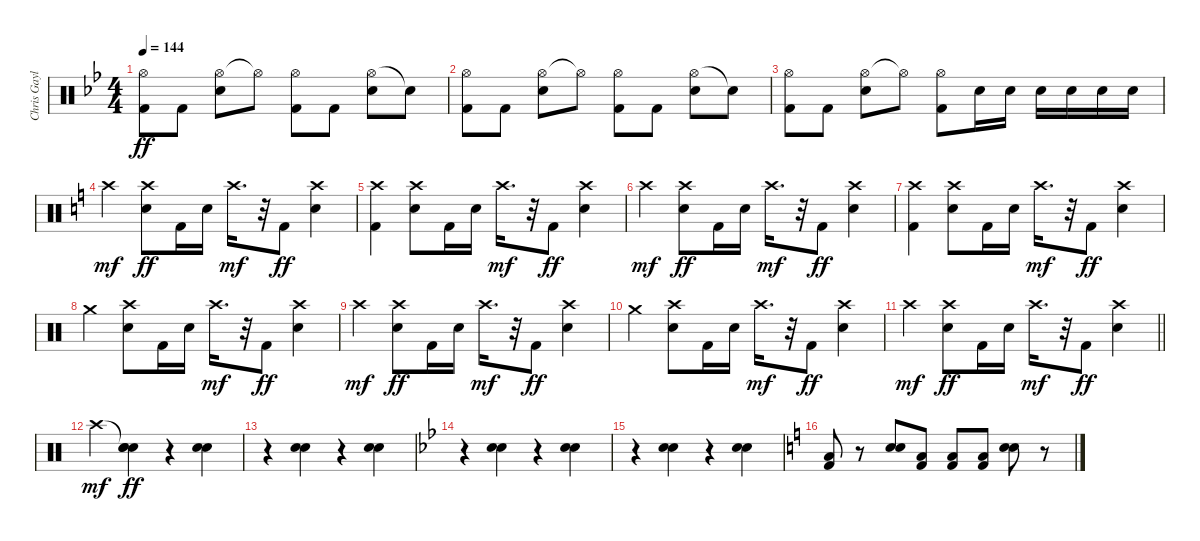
\track ("Chris Gaylor" "Chris Gayl") {instrument percussion}
\staff {score}
\articulation defaults
\ts (4 4)
\tempo 144
\clef neutral
\ks bb
("Hi-Hat (open)" "Kick (hit) 2").8{dy ff} "Kick (hit) 2".8 ("Hi-Hat (open)" "Snare (hit) 2").8 "Hi-Hat (open)"{t}.8 ("Hi-Hat (open)" "Kick (hit) 2").8 "Kick (hit) 2".8 ("Hi-Hat (open)" "Snare (hit) 2").8 "Snare (hit)"{t}.8 |
("Hi-Hat (open)" "Kick (hit) 2").8 "Kick (hit) 2".8 ("Hi-Hat (open)" "Snare (hit) 2").8 "Hi-Hat (open)"{t}.8 ("Hi-Hat (open)" "Kick (hit) 2").8 "Kick (hit) 2".8 ("Hi-Hat (open)" "Snare (hit) 2").8 "Snare (hit)"{t}.8 |
("Hi-Hat (open)" "Kick (hit) 2").8 "Kick (hit) 2".8 ("Hi-Hat (open)" "Snare (hit) 2").8 "Hi-Hat (open)"{t}.8 ("Hi-Hat (open)" "Kick (hit) 2").8 "Snare (hit) 2".16 "Snare (hit) 2".16 "Snare (hit) 2".16 "Snare (hit) 2".16 "Snare (hit) 2".16 "Snare (hit) 2".16 |
\ks c "Crash high (hit)".4{dy mf}
("Crash high (hit)" "Snare (hit) 2").8{dy ff} "Kick (hit) 2".16 "Snare (hit) 2".16 "Crash high (hit)".16{d dy mf} r.32 "Kick (hit) 2".8{dy ff} ("Crash high (hit)" "Snare (hit) 2").4 |
("Crash high (hit)" "Kick (hit) 2").4 ("Crash high (hit)" "Snare (hit) 2").8 "Kick (hit) 2".16 "Snare (hit) 2".16 "Crash high (hit)".16{d dy mf} r.32 "Kick (hit) 2".8{dy ff} ("Crash high (hit)" "Snare (hit) 2").4 |
"Crash high (hit)".4{dy mf} ("Crash high (hit)" "Snare (hit) 2").8{dy ff} "Kick (hit) 2".16 "Snare (hit) 2".16 "Crash high (hit)".16{d dy mf} r.32 "Kick (hit) 2".8{dy ff} ("Crash high (hit)" "Snare (hit) 2").4 |
("Crash high (hit)" "Kick (hit) 2").4 ("Crash high (hit)" "Snare (hit) 2").8 "Kick (hit) 2".16 "Snare (hit) 2".16 "Crash high (hit)".16{d dy mf} r.32 "Kick (hit) 2".8{dy ff} ("Crash high (hit)" "Snare (hit) 2").4 |
"Crash medium (hit)".4 ("Crash high (hit)" "Snare (hit) 2").8 "Kick (hit) 2".16 "Snare (hit) 2".16 "Crash high (hit)".16{d dy mf} r.32 "Kick (hit) 2".8{dy ff} ("Crash high (hit)" "Snare (hit) 2").4 |
"Crash high (hit)".4{dy mf} ("Crash high (hit)" "Snare (hit) 2").8{dy ff} "Kick (hit) 2".16 "Snare (hit) 2".16 "Crash high (hit)".16{d dy mf} r.32 "Kick (hit) 2".8{dy ff} ("Crash high (hit)" "Snare (hit) 2").4 |
"Crash medium (hit)".4 ("Crash high (hit)" "Snare (hit) 2").8 "Kick (hit) 2".16 "Snare (hit) 2".16 "Crash high (hit)".16{d dy mf} r.32 "Kick (hit) 2".8{dy ff} ("Crash high (hit)" "Snare (hit) 2").4 |
\barLineRight lightlight "Crash high (hit)".4{dy mf}
("Crash high (hit)" "Snare (hit) 2").8{dy ff} "Kick (hit) 2".16 "Snare (hit) 2".16 "Crash high (hit)".16{d dy mf} r.32 "Kick (hit) 2".8{dy ff} ("Crash high (hit)" "Snare (hit) 2").4 |
"Crash high (hit)".4{dy mf balance 16} ("Snare (hit)"{t} "Snare (hit) 2" "Snare (hit) 2").4{dy ff} r.4 ("Snare (hit) 2" "Snare (hit) 2").4 |
r.4 ("Snare (hit) 2" "Snare (hit) 2").4 r.4 ("Snare (hit) 2" "Snare (hit) 2").4 |
\ks bb
r.4 ("Snare (hit) 2" "Snare (hit) 2").4 r.4 ("Snare (hit) 2" "Snare (hit) 2").4 |
r.4 ("Snare (hit) 2" "Snare (hit) 2").4 r.4 ("Snare (hit) 2" "Snare (hit) 2").4 |
\ks c
("Low Floor Tom (hit)" "Kick (hit) 2").8 r.8 ("Snare (hit) 2" "Snare (hit) 2").8 ("Low Floor Tom (hit)" "Kick (hit) 2").8 ("Low Floor Tom (hit)" "Kick (hit) 2").8 ("Low Tom (hit)" "Kick (hit) 2").8 ("Snare (hit) 2" "Snare (hit) 2").8 r.8
